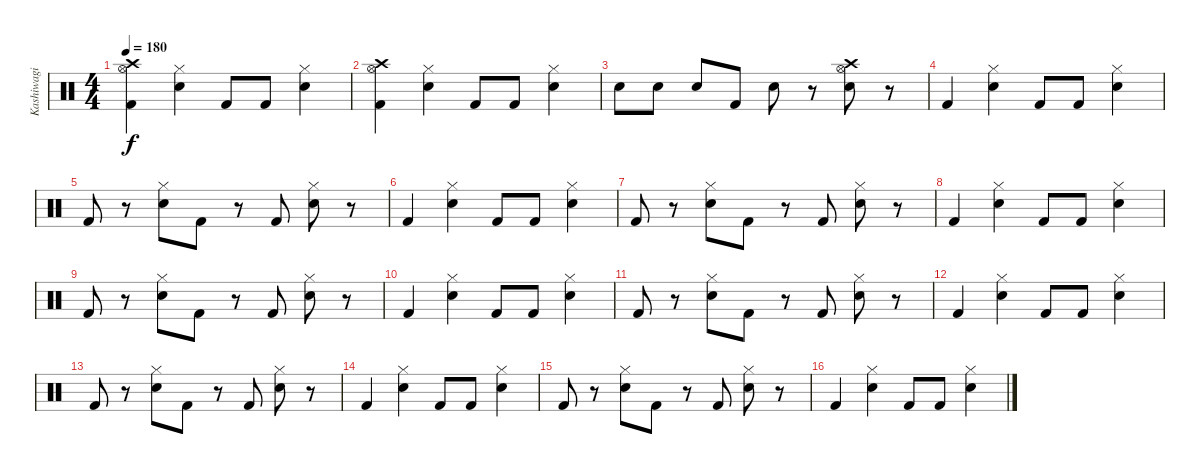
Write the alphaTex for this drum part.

\track ("Kashiwagi Yuki" "Kashiwagi ") {instrument percussion}
\staff {score}
\articulation defaults
\ts (4 4)
\tempo 180
\clef neutral
\ks c
("Crash high (hit)" "Hi-Hat (open)" "Kick (hit) 2").4{dy f} ("Hi-Hat (closed)" "Electric Snare (hit)").4 "Kick (hit) 2".8 "Kick (hit) 2".8 ("Hi-Hat (closed)" "Electric Snare (hit)").4 |
("Crash high (hit)" "Hi-Hat (open)" "Kick (hit) 2").4 ("Hi-Hat (closed)" "Electric Snare (hit)").4 "Kick (hit) 2".8 "Kick (hit) 2".8 ("Hi-Hat (closed)" "Electric Snare (hit)").4 |
"Electric Snare (hit)".8 "Electric Snare (hit)".8 "Electric Snare (hit)".8 "Kick (hit) 2".8 "Electric Snare (hit)".8 r.8 ("Crash high (hit)" "Hi-Hat (open)" "Electric Snare (hit)").8 r.8 |
"Kick (hit) 2".4 ("Hi-Hat (closed)" "Electric Snare (hit)").4 "Kick (hit) 2".8 "Kick (hit) 2".8 ("Hi-Hat (closed)" "Electric Snare (hit)").4 |
"Kick (hit) 2".8 r.8 ("Hi-Hat (closed)" "Electric Snare (hit)").8 "Kick (hit) 2".8 r.8 "Kick (hit) 2".8 ("Hi-Hat (closed)" "Electric Snare (hit)").8 r.8 |
"Kick (hit) 2".4 ("Hi-Hat (closed)" "Electric Snare (hit)").4 "Kick (hit) 2".8 "Kick (hit) 2".8 ("Hi-Hat (closed)" "Electric Snare (hit)").4 |
"Kick (hit) 2".8 r.8 ("Hi-Hat (closed)" "Electric Snare (hit)").8 "Kick (hit) 2".8 r.8 "Kick (hit) 2".8 ("Hi-Hat (closed)" "Electric Snare (hit)").8 r.8 |
"Kick (hit) 2".4 ("Hi-Hat (closed)" "Electric Snare (hit)").4 "Kick (hit) 2".8 "Kick (hit) 2".8 ("Hi-Hat (closed)" "Electric Snare (hit)").4 |
"Kick (hit) 2".8 r.8 ("Hi-Hat (closed)" "Electric Snare (hit)").8 "Kick (hit) 2".8 r.8 "Kick (hit) 2".8 ("Hi-Hat (closed)" "Electric Snare (hit)").8 r.8 |
"Kick (hit) 2".4 ("Hi-Hat (closed)" "Electric Snare (hit)").4 "Kick (hit) 2".8 "Kick (hit) 2".8 ("Hi-Hat (closed)" "Electric Snare (hit)").4 |
"Kick (hit) 2".8 r.8 ("Hi-Hat (closed)" "Electric Snare (hit)").8 "Kick (hit) 2".8 r.8 "Kick (hit) 2".8 ("Hi-Hat (closed)" "Electric Snare (hit)").8 r.8 |
"Kick (hit) 2".4 ("Hi-Hat (closed)" "Electric Snare (hit)").4 "Kick (hit) 2".8 "Kick (hit) 2".8 ("Hi-Hat (closed)" "Electric Snare (hit)").4 |
"Kick (hit) 2".8 r.8 ("Hi-Hat (closed)" "Electric Snare (hit)").8 "Kick (hit) 2".8 r.8 "Kick (hit) 2".8 ("Hi-Hat (closed)" "Electric Snare (hit)").8 r.8 |
"Kick (hit) 2".4 ("Hi-Hat (closed)" "Electric Snare (hit)").4 "Kick (hit) 2".8 "Kick (hit) 2".8 ("Hi-Hat (closed)" "Electric Snare (hit)").4 |
"Kick (hit) 2".8 r.8 ("Hi-Hat (closed)" "Electric Snare (hit)").8 "Kick (hit) 2".8 r.8 "Kick (hit) 2".8 ("Hi-Hat (closed)" "Electric Snare (hit)").8 r.8 |
"Kick (hit) 2".4 ("Hi-Hat (closed)" "Electric Snare (hit)").4 "Kick (hit) 2".8 "Kick (hit) 2".8 ("Hi-Hat (closed)" "Electric Snare (hit)").4
